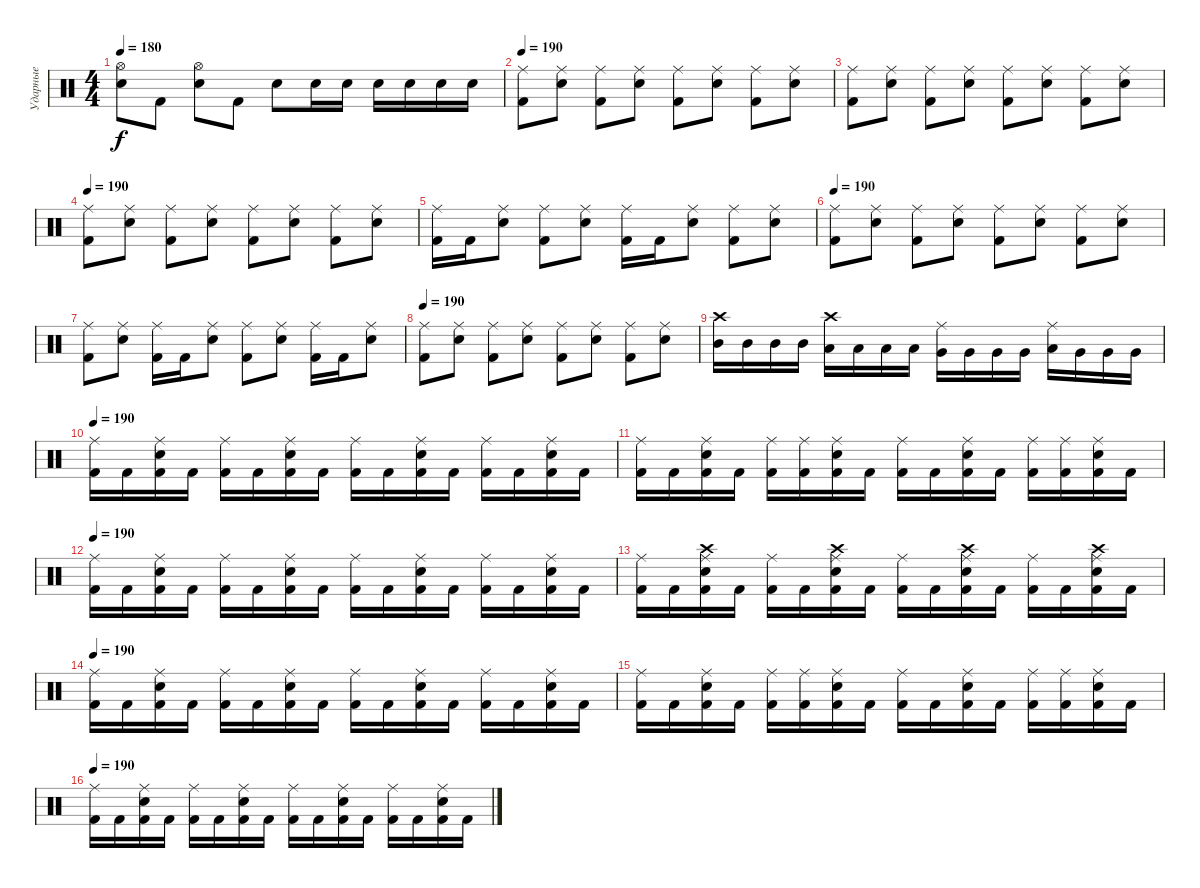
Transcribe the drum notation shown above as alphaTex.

\track ("Ударные" "Ударные") {instrument percussion}
\staff {score}
\articulation defaults
\ts (4 4)
\tempo 180
\clef neutral
\ks c
("Electric Snare (hit)" "Hi-Hat (open)").8{dy f} "Kick (hit) 2".8 ("Electric Snare (hit)" "Hi-Hat (open)").8 "Kick (hit) 2".8 "Electric Snare (hit)".8 "Electric Snare (hit)".16 "Electric Snare (hit)".16 "Electric Snare (hit)".16 "Electric Snare (hit)".16 "Electric Snare (hit)".16 "Electric Snare (hit)".16 |
\tempo 190
("Kick (hit) 2" "Ride (middle)").8 ("Electric Snare (hit)" "Ride (middle)").8 ("Kick (hit) 2" "Ride (middle)").8 ("Electric Snare (hit)" "Ride (middle)").8 ("Kick (hit) 2" "Ride (middle)").8 ("Electric Snare (hit)" "Ride (middle)").8 ("Kick (hit) 2" "Ride (middle)").8 ("Electric Snare (hit)" "Ride (middle)").8 |
("Kick (hit) 2" "Ride (middle)").8 ("Electric Snare (hit)" "Ride (middle)").8 ("Kick (hit) 2" "Ride (middle)").8 ("Electric Snare (hit)" "Ride (middle)").8 ("Kick (hit) 2" "Ride (middle)").8 ("Electric Snare (hit)" "Ride (middle)").8 ("Kick (hit) 2" "Ride (middle)").8 ("Electric Snare (hit)" "Ride (middle)").8 |
\tempo 190
("Kick (hit) 2" "Ride (middle)").8 ("Electric Snare (hit)" "Ride (middle)").8 ("Kick (hit) 2" "Ride (middle)").8 ("Electric Snare (hit)" "Ride (middle)").8 ("Kick (hit) 2" "Ride (middle)").8 ("Electric Snare (hit)" "Ride (middle)").8 ("Kick (hit) 2" "Ride (middle)").8 ("Electric Snare (hit)" "Ride (middle)").8 |
("Kick (hit) 2" "Ride (middle)").16 "Kick (hit) 2".16 ("Electric Snare (hit)" "Ride (middle)").8 ("Kick (hit) 2" "Ride (middle)").8 ("Electric Snare (hit)" "Ride (middle)").8 ("Kick (hit) 2" "Ride (middle)").16 "Kick (hit) 2".16 ("Electric Snare (hit)" "Ride (middle)").8 ("Kick (hit) 2" "Ride (middle)").8 ("Electric Snare (hit)" "Ride (middle)").8 |
\tempo 190
("Kick (hit) 2" "Ride (middle)").8 ("Electric Snare (hit)" "Ride (middle)").8 ("Kick (hit) 2" "Ride (middle)").8 ("Electric Snare (hit)" "Ride (middle)").8 ("Kick (hit) 2" "Ride (middle)").8 ("Electric Snare (hit)" "Ride (middle)").8 ("Kick (hit) 2" "Ride (middle)").8 ("Electric Snare (hit)" "Ride (middle)").8 |
("Kick (hit) 2" "Ride (middle)").8 ("Electric Snare (hit)" "Ride (middle)").8 ("Kick (hit) 2" "Ride (middle)").16 "Kick (hit) 2".16 ("Electric Snare (hit)" "Ride (middle)").8 ("Kick (hit) 2" "Ride (middle)").8 ("Electric Snare (hit)" "Ride (middle)").8 ("Kick (hit) 2" "Ride (middle)").16 "Kick (hit) 2".16 ("Electric Snare (hit)" "Ride (middle)").8 |
\tempo 190
("Kick (hit) 2" "Ride (middle)").8 ("Electric Snare (hit)" "Ride (middle)").8 ("Kick (hit) 2" "Ride (middle)").8 ("Electric Snare (hit)" "Ride (middle)").8 ("Kick (hit) 2" "Ride (middle)").8 ("Electric Snare (hit)" "Ride (middle)").8 ("Kick (hit) 2" "Ride (middle)").8 ("Electric Snare (hit)" "Ride (middle)").8 |
("Mid Tom (hit)" "Crash high (hit)").16 "Mid Tom (hit)".16 "Mid Tom (hit)".16 "Mid Tom (hit)".16 ("Low Tom (hit)" "Crash high (hit)").16 "Low Tom (hit)".16 "Low Tom (hit)".16 "Low Tom (hit)".16 ("Very Low Tom (hit)" "Ride (middle)").16 "Very Low Tom (hit)".16 "Very Low Tom (hit)".16 "Very Low Tom (hit)".16 ("Low Floor Tom (hit)" "Ride (middle)").16 "Very Low Tom (hit)".16 "Very Low Tom (hit)".16 "Very Low Tom (hit)".16 |
\tempo 190
("Kick (hit) 2" "Ride (middle)").16 "Kick (hit) 2".16 ("Kick (hit) 2" "Electric Snare (hit)" "Ride (middle)").16 "Kick (hit) 2".16 ("Kick (hit) 2" "Ride (middle)").16 "Kick (hit) 2".16 ("Kick (hit) 2" "Electric Snare (hit)" "Ride (middle)").16 "Kick (hit) 2".16 ("Kick (hit) 2" "Ride (middle)").16 "Kick (hit) 2".16 ("Kick (hit) 2" "Electric Snare (hit)" "Ride (middle)").16 "Kick (hit) 2".16 ("Kick (hit) 2" "Ride (middle)").16 "Kick (hit) 2".16 ("Kick (hit) 2" "Electric Snare (hit)" "Ride (middle)").16 "Kick (hit) 2".16 |
("Kick (hit) 2" "Ride (middle)").16 "Kick (hit) 2".16 ("Kick (hit) 2" "Electric Snare (hit)" "Ride (middle)").16 "Kick (hit) 2".16 ("Kick (hit) 2" "Ride (middle)").16 ("Kick (hit) 2" "Ride (middle)").16 ("Kick (hit) 2" "Electric Snare (hit)" "Ride (middle)").16 "Kick (hit) 2".16 ("Kick (hit) 2" "Ride (middle)").16 "Kick (hit) 2".16 ("Kick (hit) 2" "Electric Snare (hit)" "Ride (middle)").16 "Kick (hit) 2".16 ("Kick (hit) 2" "Ride (middle)").16 ("Kick (hit) 2" "Ride (middle)").16 ("Kick (hit) 2" "Electric Snare (hit)" "Ride (middle)").16 "Kick (hit) 2".16 |
\tempo 190
("Kick (hit) 2" "Ride (middle)").16 "Kick (hit) 2".16 ("Kick (hit) 2" "Electric Snare (hit)" "Ride (middle)").16 "Kick (hit) 2".16 ("Kick (hit) 2" "Ride (middle)").16 "Kick (hit) 2".16 ("Kick (hit) 2" "Electric Snare (hit)" "Ride (middle)").16 "Kick (hit) 2".16 ("Kick (hit) 2" "Ride (middle)").16 "Kick (hit) 2".16 ("Kick (hit) 2" "Electric Snare (hit)" "Ride (middle)").16 "Kick (hit) 2".16 ("Kick (hit) 2" "Ride (middle)").16 "Kick (hit) 2".16 ("Kick (hit) 2" "Electric Snare (hit)" "Ride (middle)").16 "Kick (hit) 2".16 |
("Kick (hit) 2" "Ride (middle)").16 "Kick (hit) 2".16 ("Kick (hit) 2" "Electric Snare (hit)" "Ride (middle)" "Crash high (hit)").16 "Kick (hit) 2".16 ("Kick (hit) 2" "Ride (middle)").16 "Kick (hit) 2".16 ("Kick (hit) 2" "Electric Snare (hit)" "Ride (middle)" "Crash high (hit)").16 "Kick (hit) 2".16 ("Kick (hit) 2" "Ride (middle)").16 "Kick (hit) 2".16 ("Kick (hit) 2" "Electric Snare (hit)" "Ride (middle)" "Crash high (hit)").16 "Kick (hit) 2".16 ("Kick (hit) 2" "Ride (middle)").16 "Kick (hit) 2".16 ("Kick (hit) 2" "Electric Snare (hit)" "Ride (middle)" "Crash high (hit)").16 "Kick (hit) 2".16 |
\tempo 190
("Kick (hit) 2" "Ride (middle)").16 "Kick (hit) 2".16 ("Kick (hit) 2" "Electric Snare (hit)" "Ride (middle)").16 "Kick (hit) 2".16 ("Kick (hit) 2" "Ride (middle)").16 "Kick (hit) 2".16 ("Kick (hit) 2" "Electric Snare (hit)" "Ride (middle)").16 "Kick (hit) 2".16 ("Kick (hit) 2" "Ride (middle)").16 "Kick (hit) 2".16 ("Kick (hit) 2" "Electric Snare (hit)" "Ride (middle)").16 "Kick (hit) 2".16 ("Kick (hit) 2" "Ride (middle)").16 "Kick (hit) 2".16 ("Kick (hit) 2" "Electric Snare (hit)" "Ride (middle)").16 "Kick (hit) 2".16 |
("Kick (hit) 2" "Ride (middle)").16 "Kick (hit) 2".16 ("Kick (hit) 2" "Electric Snare (hit)" "Ride (middle)").16 "Kick (hit) 2".16 ("Kick (hit) 2" "Ride (middle)").16 ("Kick (hit) 2" "Ride (middle)").16 ("Kick (hit) 2" "Electric Snare (hit)" "Ride (middle)").16 "Kick (hit) 2".16 ("Kick (hit) 2" "Ride (middle)").16 "Kick (hit) 2".16 ("Kick (hit) 2" "Electric Snare (hit)" "Ride (middle)").16 "Kick (hit) 2".16 ("Kick (hit) 2" "Ride (middle)").16 ("Kick (hit) 2" "Ride (middle)").16 ("Kick (hit) 2" "Electric Snare (hit)" "Ride (middle)").16 "Kick (hit) 2".16 |
\tempo 190
("Kick (hit) 2" "Ride (middle)").16 "Kick (hit) 2".16 ("Kick (hit) 2" "Electric Snare (hit)" "Ride (middle)").16 "Kick (hit) 2".16 ("Kick (hit) 2" "Ride (middle)").16 "Kick (hit) 2".16 ("Kick (hit) 2" "Electric Snare (hit)" "Ride (middle)").16 "Kick (hit) 2".16 ("Kick (hit) 2" "Ride (middle)").16 "Kick (hit) 2".16 ("Kick (hit) 2" "Electric Snare (hit)" "Ride (middle)").16 "Kick (hit) 2".16 ("Kick (hit) 2" "Ride (middle)").16 "Kick (hit) 2".16 ("Kick (hit) 2" "Electric Snare (hit)" "Ride (middle)").16 "Kick (hit) 2".16
